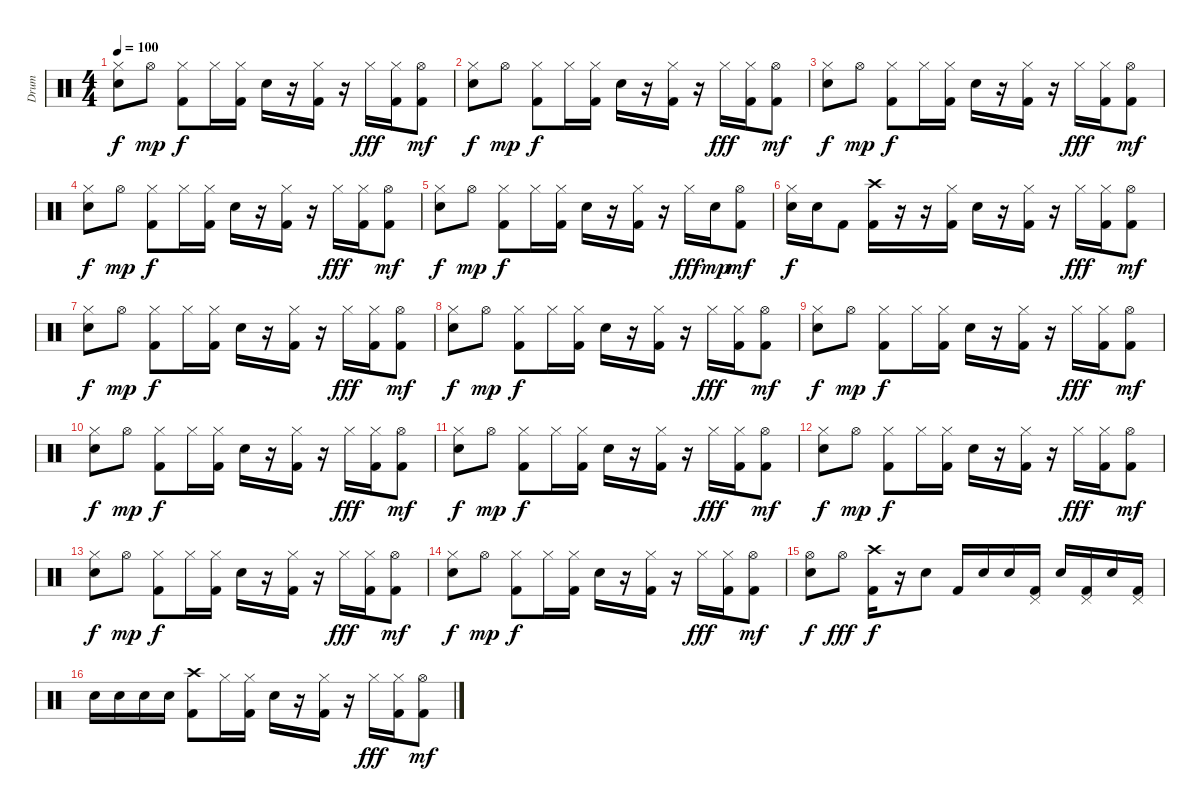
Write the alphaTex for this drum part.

\track ("Drum" "Drum") {instrument percussion}
\staff {score}
\articulation defaults
\ts (4 4)
\tempo 100
\clef neutral
\ks c
("Snare (hit) 2" "Hi-Hat (closed)").8{dy f} "Hi-Hat (open)".8{dy mp} ("Hi-Hat (closed)" "Kick (hit) 2").8{dy f} "Hi-Hat (closed)".16 ("Hi-Hat (closed)" "Kick (hit) 2").16 "Snare (hit) 2".16 r.16 ("Hi-Hat (closed)" "Kick (hit) 2").16 r.16 "Hi-Hat (closed)".16{dy fff} ("Hi-Hat (closed)" "Kick (hit) 2").16 ("Hi-Hat (open)" "Kick (hit) 2").8{dy mf} |
("Snare (hit) 2" "Hi-Hat (closed)").8{dy f} "Hi-Hat (open)".8{dy mp} ("Hi-Hat (closed)" "Kick (hit) 2").8{dy f} "Hi-Hat (closed)".16 ("Hi-Hat (closed)" "Kick (hit) 2").16 "Snare (hit) 2".16 r.16 ("Hi-Hat (closed)" "Kick (hit) 2").16 r.16 "Hi-Hat (closed)".16{dy fff} ("Hi-Hat (closed)" "Kick (hit) 2").16 ("Hi-Hat (open)" "Kick (hit) 2").8{dy mf} |
("Snare (hit) 2" "Hi-Hat (closed)").8{dy f} "Hi-Hat (open)".8{dy mp} ("Hi-Hat (closed)" "Kick (hit) 2").8{dy f} "Hi-Hat (closed)".16 ("Hi-Hat (closed)" "Kick (hit) 2").16 "Snare (hit) 2".16 r.16 ("Hi-Hat (closed)" "Kick (hit) 2").16 r.16 "Hi-Hat (closed)".16{dy fff} ("Hi-Hat (closed)" "Kick (hit) 2").16 ("Hi-Hat (open)" "Kick (hit) 2").8{dy mf} |
("Snare (hit) 2" "Hi-Hat (closed)").8{dy f} "Hi-Hat (open)".8{dy mp} ("Hi-Hat (closed)" "Kick (hit) 2").8{dy f} "Hi-Hat (closed)".16 ("Hi-Hat (closed)" "Kick (hit) 2").16 "Snare (hit) 2".16 r.16 ("Hi-Hat (closed)" "Kick (hit) 2").16 r.16 "Hi-Hat (closed)".16{dy fff} ("Hi-Hat (closed)" "Kick (hit) 2").16 ("Hi-Hat (open)" "Kick (hit) 2").8{dy mf} |
("Snare (hit) 2" "Hi-Hat (closed)").8{dy f} "Hi-Hat (open)".8{dy mp} ("Hi-Hat (closed)" "Kick (hit) 2").8{dy f} "Hi-Hat (closed)".16 ("Hi-Hat (closed)" "Kick (hit) 2").16 "Snare (hit) 2".16 r.16 ("Hi-Hat (closed)" "Kick (hit) 2").16 r.16 "Hi-Hat (closed)".16{dy fff} "Snare (hit) 2".16{dy mp} ("Hi-Hat (open)" "Kick (hit) 2").8{dy mf} |
("Snare (hit) 2" "Hi-Hat (closed)").16{dy f} "Snare (hit) 2".16 "Kick (hit) 2".8 ("Crash high (hit)" "Kick (hit) 2").16 r.16 r.16 ("Hi-Hat (closed)" "Kick (hit) 2").16 "Snare (hit) 2".16 r.16 ("Hi-Hat (closed)" "Kick (hit) 2").16 r.16 "Hi-Hat (closed)".16{dy fff} ("Hi-Hat (closed)" "Kick (hit) 2").16 ("Hi-Hat (open)" "Kick (hit) 2").8{dy mf} |
("Snare (hit) 2" "Hi-Hat (closed)").8{dy f} "Hi-Hat (open)".8{dy mp} ("Hi-Hat (closed)" "Kick (hit) 2").8{dy f} "Hi-Hat (closed)".16 ("Hi-Hat (closed)" "Kick (hit) 2").16 "Snare (hit) 2".16 r.16 ("Hi-Hat (closed)" "Kick (hit) 2").16 r.16 "Hi-Hat (closed)".16{dy fff} ("Hi-Hat (closed)" "Kick (hit) 2").16 ("Hi-Hat (open)" "Kick (hit) 2").8{dy mf} |
("Snare (hit) 2" "Hi-Hat (closed)").8{dy f} "Hi-Hat (open)".8{dy mp} ("Hi-Hat (closed)" "Kick (hit) 2").8{dy f} "Hi-Hat (closed)".16 ("Hi-Hat (closed)" "Kick (hit) 2").16 "Snare (hit) 2".16 r.16 ("Hi-Hat (closed)" "Kick (hit) 2").16 r.16 "Hi-Hat (closed)".16{dy fff} ("Hi-Hat (closed)" "Kick (hit) 2").16 ("Hi-Hat (open)" "Kick (hit) 2").8{dy mf} |
("Snare (hit) 2" "Hi-Hat (closed)").8{dy f} "Hi-Hat (open)".8{dy mp} ("Hi-Hat (closed)" "Kick (hit) 2").8{dy f} "Hi-Hat (closed)".16 ("Hi-Hat (closed)" "Kick (hit) 2").16 "Snare (hit) 2".16 r.16 ("Hi-Hat (closed)" "Kick (hit) 2").16 r.16 "Hi-Hat (closed)".16{dy fff} ("Hi-Hat (closed)" "Kick (hit) 2").16 ("Hi-Hat (open)" "Kick (hit) 2").8{dy mf} |
("Snare (hit) 2" "Hi-Hat (closed)").8{dy f} "Hi-Hat (open)".8{dy mp} ("Hi-Hat (closed)" "Kick (hit) 2").8{dy f} "Hi-Hat (closed)".16 ("Hi-Hat (closed)" "Kick (hit) 2").16 "Snare (hit) 2".16 r.16 ("Hi-Hat (closed)" "Kick (hit) 2").16 r.16 "Hi-Hat (closed)".16{dy fff} ("Hi-Hat (closed)" "Kick (hit) 2").16 ("Hi-Hat (open)" "Kick (hit) 2").8{dy mf} |
("Snare (hit) 2" "Hi-Hat (closed)").8{dy f} "Hi-Hat (open)".8{dy mp} ("Hi-Hat (closed)" "Kick (hit) 2").8{dy f} "Hi-Hat (closed)".16 ("Hi-Hat (closed)" "Kick (hit) 2").16 "Snare (hit) 2".16 r.16 ("Hi-Hat (closed)" "Kick (hit) 2").16 r.16 "Hi-Hat (closed)".16{dy fff} ("Hi-Hat (closed)" "Kick (hit) 2").16 ("Hi-Hat (open)" "Kick (hit) 2").8{dy mf} |
("Snare (hit) 2" "Hi-Hat (closed)").8{dy f} "Hi-Hat (open)".8{dy mp} ("Hi-Hat (closed)" "Kick (hit) 2").8{dy f} "Hi-Hat (closed)".16 ("Hi-Hat (closed)" "Kick (hit) 2").16 "Snare (hit) 2".16 r.16 ("Hi-Hat (closed)" "Kick (hit) 2").16 r.16 "Hi-Hat (closed)".16{dy fff} ("Hi-Hat (closed)" "Kick (hit) 2").16 ("Hi-Hat (open)" "Kick (hit) 2").8{dy mf} |
("Snare (hit) 2" "Hi-Hat (closed)").8{dy f} "Hi-Hat (open)".8{dy mp} ("Hi-Hat (closed)" "Kick (hit) 2").8{dy f} "Hi-Hat (closed)".16 ("Hi-Hat (closed)" "Kick (hit) 2").16 "Snare (hit) 2".16 r.16 ("Hi-Hat (closed)" "Kick (hit) 2").16 r.16 "Hi-Hat (closed)".16{dy fff} ("Hi-Hat (closed)" "Kick (hit) 2").16 ("Hi-Hat (open)" "Kick (hit) 2").8{dy mf} |
("Snare (hit) 2" "Hi-Hat (closed)").8{dy f} "Hi-Hat (open)".8{dy mp} ("Hi-Hat (closed)" "Kick (hit) 2").8{dy f} "Hi-Hat (closed)".16 ("Hi-Hat (closed)" "Kick (hit) 2").16 "Snare (hit) 2".16 r.16 ("Hi-Hat (closed)" "Kick (hit) 2").16 r.16 "Hi-Hat (closed)".16{dy fff} ("Hi-Hat (closed)" "Kick (hit) 2").16 ("Hi-Hat (open)" "Kick (hit) 2").8{dy mf} |
("Snare (hit) 2" "Hi-Hat (open)").8{dy f} "Hi-Hat (open)".8{dy fff} ("Crash high (hit)" "Kick (hit) 2").16{dy f} r.16 "Snare (hit) 2".8 "Kick (hit) 2".16 "Snare (hit) 2".16 "Snare (hit) 2".16 ("Pedal Hi-Hat (hit)" "Kick (hit) 2").16 "Snare (hit) 2".16 ("Pedal Hi-Hat (hit)" "Kick (hit) 2").16 "Snare (hit) 2".16 ("Pedal Hi-Hat (hit)" "Kick (hit) 2").16 |
"Snare (hit) 2".16 "Snare (hit) 2".16 "Snare (hit) 2".16 "Snare (hit) 2".16 ("Crash high (hit)" "Kick (hit) 2").8 "Hi-Hat (closed)".16 ("Hi-Hat (closed)" "Kick (hit) 2").16 "Snare (hit) 2".16 r.16 ("Hi-Hat (closed)" "Kick (hit) 2").16 r.16 "Hi-Hat (closed)".16{dy fff} ("Hi-Hat (closed)" "Kick (hit) 2").16 ("Hi-Hat (open)" "Kick (hit) 2").8{dy mf}
